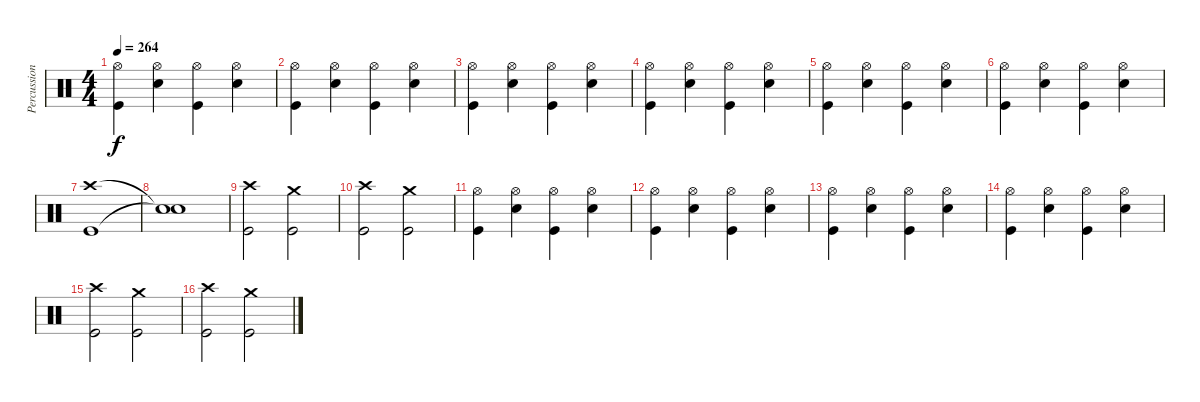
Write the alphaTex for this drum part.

\track ("Percussion" "Percussion") {instrument percussion}
\staff {score}
\articulation defaults
\ts (4 4)
\tempo 264
\clef neutral
\ks c
("Hi-Hat (open)" "Kick (hit)").4{dy f} ("Hi-Hat (open)" "Snare (hit) 2").4 ("Hi-Hat (open)" "Kick (hit)").4 ("Hi-Hat (open)" "Snare (hit) 2").4 |
("Hi-Hat (open)" "Kick (hit)").4 ("Hi-Hat (open)" "Snare (hit) 2").4 ("Hi-Hat (open)" "Kick (hit)").4 ("Hi-Hat (open)" "Snare (hit) 2").4 |
("Hi-Hat (open)" "Kick (hit)").4 ("Hi-Hat (open)" "Snare (hit) 2").4 ("Hi-Hat (open)" "Kick (hit)").4 ("Hi-Hat (open)" "Snare (hit) 2").4 |
("Hi-Hat (open)" "Kick (hit)").4 ("Hi-Hat (open)" "Snare (hit) 2").4 ("Hi-Hat (open)" "Kick (hit)").4 ("Hi-Hat (open)" "Snare (hit) 2").4 |
("Hi-Hat (open)" "Kick (hit)").4 ("Hi-Hat (open)" "Snare (hit) 2").4 ("Hi-Hat (open)" "Kick (hit)").4 ("Hi-Hat (open)" "Snare (hit) 2").4 |
("Hi-Hat (open)" "Kick (hit)").4 ("Hi-Hat (open)" "Snare (hit) 2").4 ("Hi-Hat (open)" "Kick (hit)").4 ("Hi-Hat (open)" "Snare (hit) 2").4 |
("Crash high (hit)" "Kick (hit)").1 |
("Snare (hit)"{t} "Snare (hit)"{t}).1 |
("Crash high (hit)" "Kick (hit)").2 ("Crash medium (hit)" "Kick (hit)").2 |
("Crash high (hit)" "Kick (hit)").2 ("Crash medium (hit)" "Kick (hit)").2 |
("Hi-Hat (open)" "Kick (hit)").4 ("Hi-Hat (open)" "Snare (hit) 2").4 ("Hi-Hat (open)" "Kick (hit)").4 ("Hi-Hat (open)" "Snare (hit) 2").4 |
("Hi-Hat (open)" "Kick (hit)").4 ("Hi-Hat (open)" "Snare (hit) 2").4 ("Hi-Hat (open)" "Kick (hit)").4 ("Hi-Hat (open)" "Snare (hit) 2").4 |
("Hi-Hat (open)" "Kick (hit)").4 ("Hi-Hat (open)" "Snare (hit) 2").4 ("Hi-Hat (open)" "Kick (hit)").4 ("Hi-Hat (open)" "Snare (hit) 2").4 |
("Hi-Hat (open)" "Kick (hit)").4 ("Hi-Hat (open)" "Snare (hit) 2").4 ("Hi-Hat (open)" "Kick (hit)").4 ("Hi-Hat (open)" "Snare (hit) 2").4 |
("Crash high (hit)" "Kick (hit)").2 ("Crash medium (hit)" "Kick (hit)").2 |
("Crash high (hit)" "Kick (hit)").2 ("Crash medium (hit)" "Kick (hit)").2
